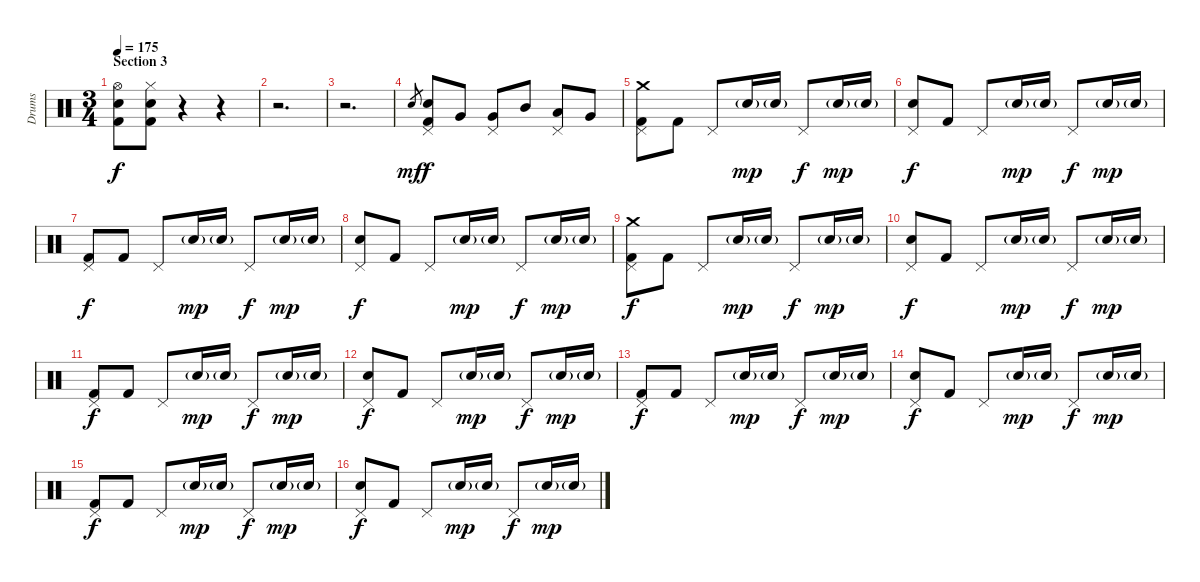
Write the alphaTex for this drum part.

\track ("Drums" "Drums") {instrument percussion}
\staff {score}
\articulation defaults
\ts (3 4)
\section ("" "Section 3")
\tempo 175
\clef neutral
\ks c
("Hi-Hat (open)" "Electric Snare (hit)" "Kick (hit) 2").8{dy f} ("Hi-Hat (closed)" "Electric Snare (hit)" "Kick (hit) 2").8 r.4 r.4 |
r.2{d} |
r.2{d} |
"Electric Snare (hit)".8{gr dy mf} ("Pedal Hi-Hat (hit)" "Electric Snare (hit)" "Kick (hit) 2").8{dy f} "Very Low Tom (hit)".8 ("Pedal Hi-Hat (hit)" "Very Low Tom (hit)").8 "Mid Tom (hit)".8 ("Pedal Hi-Hat (hit)" "Low Tom (hit)").8 "Very Low Tom (hit)".8 |
("Crash medium (hit)" "Pedal Hi-Hat (hit)" "Kick (hit) 2").8 "Kick (hit) 2".8 "Pedal Hi-Hat (hit)".8 "Electric Snare (hit)"{g}.16{dy mp} "Electric Snare (hit)"{g}.16 "Pedal Hi-Hat (hit)".8{dy f} "Electric Snare (hit)"{g}.16{dy mp} "Electric Snare (hit)"{g}.16 |
("Pedal Hi-Hat (hit)" "Electric Snare (hit)").8{dy f} "Kick (hit) 2".8 "Pedal Hi-Hat (hit)".8 "Electric Snare (hit)"{g}.16{dy mp} "Electric Snare (hit)"{g}.16 "Pedal Hi-Hat (hit)".8{dy f} "Electric Snare (hit)"{g}.16{dy mp} "Electric Snare (hit)"{g}.16 |
("Pedal Hi-Hat (hit)" "Kick (hit) 2").8{dy f} "Kick (hit) 2".8 "Pedal Hi-Hat (hit)".8 "Electric Snare (hit)"{g}.16{dy mp} "Electric Snare (hit)"{g}.16 "Pedal Hi-Hat (hit)".8{dy f} "Electric Snare (hit)"{g}.16{dy mp} "Electric Snare (hit)"{g}.16 |
("Pedal Hi-Hat (hit)" "Electric Snare (hit)").8{dy f} "Kick (hit) 2".8 "Pedal Hi-Hat (hit)".8 "Electric Snare (hit)"{g}.16{dy mp} "Electric Snare (hit)"{g}.16 "Pedal Hi-Hat (hit)".8{dy f} "Electric Snare (hit)"{g}.16{dy mp} "Electric Snare (hit)"{g}.16 |
("Crash medium (hit)" "Pedal Hi-Hat (hit)" "Kick (hit) 2").8{dy f} "Kick (hit) 2".8 "Pedal Hi-Hat (hit)".8 "Electric Snare (hit)"{g}.16{dy mp} "Electric Snare (hit)"{g}.16 "Pedal Hi-Hat (hit)".8{dy f} "Electric Snare (hit)"{g}.16{dy mp} "Electric Snare (hit)"{g}.16 |
("Pedal Hi-Hat (hit)" "Electric Snare (hit)").8{dy f} "Kick (hit) 2".8 "Pedal Hi-Hat (hit)".8 "Electric Snare (hit)"{g}.16{dy mp} "Electric Snare (hit)"{g}.16 "Pedal Hi-Hat (hit)".8{dy f} "Electric Snare (hit)"{g}.16{dy mp} "Electric Snare (hit)"{g}.16 |
("Pedal Hi-Hat (hit)" "Kick (hit) 2").8{dy f} "Kick (hit) 2".8 "Pedal Hi-Hat (hit)".8 "Electric Snare (hit)"{g}.16{dy mp} "Electric Snare (hit)"{g}.16 "Pedal Hi-Hat (hit)".8{dy f} "Electric Snare (hit)"{g}.16{dy mp} "Electric Snare (hit)"{g}.16 |
("Pedal Hi-Hat (hit)" "Electric Snare (hit)").8{dy f} "Kick (hit) 2".8 "Pedal Hi-Hat (hit)".8 "Electric Snare (hit)"{g}.16{dy mp} "Electric Snare (hit)"{g}.16 "Pedal Hi-Hat (hit)".8{dy f} "Electric Snare (hit)"{g}.16{dy mp} "Electric Snare (hit)"{g}.16 |
("Pedal Hi-Hat (hit)" "Kick (hit) 2").8{dy f} "Kick (hit) 2".8 "Pedal Hi-Hat (hit)".8 "Electric Snare (hit)"{g}.16{dy mp} "Electric Snare (hit)"{g}.16 "Pedal Hi-Hat (hit)".8{dy f} "Electric Snare (hit)"{g}.16{dy mp} "Electric Snare (hit)"{g}.16 |
("Pedal Hi-Hat (hit)" "Electric Snare (hit)").8{dy f} "Kick (hit) 2".8 "Pedal Hi-Hat (hit)".8 "Electric Snare (hit)"{g}.16{dy mp} "Electric Snare (hit)"{g}.16 "Pedal Hi-Hat (hit)".8{dy f} "Electric Snare (hit)"{g}.16{dy mp} "Electric Snare (hit)"{g}.16 |
("Pedal Hi-Hat (hit)" "Kick (hit) 2").8{dy f} "Kick (hit) 2".8 "Pedal Hi-Hat (hit)".8 "Electric Snare (hit)"{g}.16{dy mp} "Electric Snare (hit)"{g}.16 "Pedal Hi-Hat (hit)".8{dy f} "Electric Snare (hit)"{g}.16{dy mp} "Electric Snare (hit)"{g}.16 |
("Pedal Hi-Hat (hit)" "Electric Snare (hit)").8{dy f} "Kick (hit) 2".8 "Pedal Hi-Hat (hit)".8 "Electric Snare (hit)"{g}.16{dy mp} "Electric Snare (hit)"{g}.16 "Pedal Hi-Hat (hit)".8{dy f} "Electric Snare (hit)"{g}.16{dy mp} "Electric Snare (hit)"{g}.16
